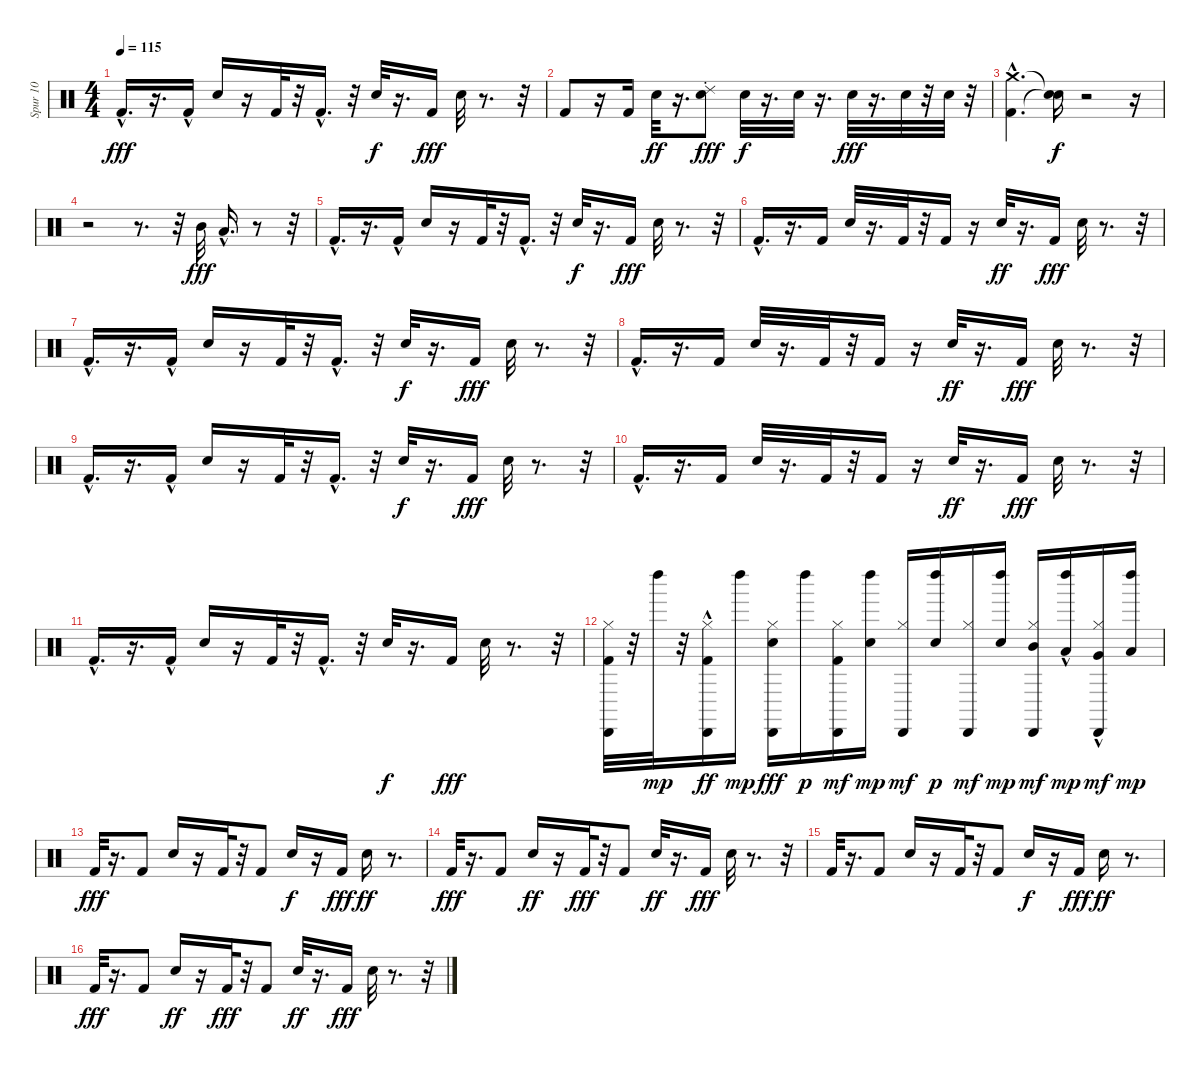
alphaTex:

\track ("Spur 10" "Spur 10") {instrument percussion}
\staff {score}
\articulation defaults
\ts (4 4)
\tempo 115
\clef neutral
\ks c "Kick (hit) 2"{hac}.16{d dy fff}
r.16{d} "Kick (hit) 2"{hac}.16 "Metronome (bell)".16 r.16 "Kick (hit) 2".32 r.32 "Kick (hit) 2"{hac}.16{d} r.32 "Metronome (bell)".32{dy f} r.16{d} "Kick (hit) 2".16{dy fff} "Metronome (bell)".32 r.8{d} r.32 |
"Kick (hit) 2".8{volume 14} r.16 "Kick (hit) 2".16 "Metronome (bell)".32{dy ff} r.16{d} ("Ride (choke) 2" "Metronome (bell)").8{dy fff} "Metronome (bell)".32{dy f} r.16{d} "Metronome (bell)".32 r.16{d} "Metronome (bell)".32{dy fff} r.16{d} "Metronome (bell)".32 r.32 "Metronome (bell)".32 r.32 |
("Crash medium (hit)"{hac} "Kick (hit) 2"{hac}).4{d volume 14} ("Snare (hit)"{t} "Snare (hit)"{t}).16{dy f} r.2 r.16 |
r.2 r.8{d} r.32 "Mid Tom (hit)".32{dy fff} "Low Tom (hit)"{hac}.16{d} r.8 r.32 |
"Kick (hit) 2"{hac}.16{d volume 14} r.16{d} "Kick (hit) 2"{hac}.16 "Metronome (bell)".16 r.16 "Kick (hit) 2".32 r.32 "Kick (hit) 2"{hac}.16{d} r.32 "Metronome (bell)".32{dy f} r.16{d} "Kick (hit) 2".16{dy fff} "Metronome (bell)".32 r.8{d} r.32 |
"Kick (hit) 2"{hac}.16{d} r.16{d} "Kick (hit) 2".16 "Metronome (bell)".32 r.16{d} "Kick (hit) 2".32 r.32 "Kick (hit) 2".16 r.16 "Metronome (bell)".32{dy ff} r.16{d} "Kick (hit) 2".16{dy fff} "Metronome (bell)".32 r.8{d} r.32 |
"Kick (hit) 2"{hac}.16{d} r.16{d} "Kick (hit) 2"{hac}.16 "Metronome (bell)".16 r.16 "Kick (hit) 2".32 r.32 "Kick (hit) 2"{hac}.16{d} r.32 "Metronome (bell)".32{dy f} r.16{d} "Kick (hit) 2".16{dy fff} "Metronome (bell)".32 r.8{d} r.32 |
"Kick (hit) 2"{hac}.16{d} r.16{d} "Kick (hit) 2".16 "Metronome (bell)".32 r.16{d} "Kick (hit) 2".32 r.32 "Kick (hit) 2".16 r.16 "Metronome (bell)".32{dy ff} r.16{d} "Kick (hit) 2".16{dy fff} "Metronome (bell)".32 r.8{d} r.32 |
"Kick (hit) 2"{hac}.16{d} r.16{d} "Kick (hit) 2"{hac}.16 "Metronome (bell)".16 r.16 "Kick (hit) 2".32 r.32 "Kick (hit) 2"{hac}.16{d} r.32 "Metronome (bell)".32{dy f} r.16{d} "Kick (hit) 2".16{dy fff} "Metronome (bell)".32 r.8{d} r.32 |
"Kick (hit) 2"{hac}.16{d} r.16{d} "Kick (hit) 2".16 "Metronome (bell)".32 r.16{d} "Kick (hit) 2".32 r.32 "Kick (hit) 2".16 r.16 "Metronome (bell)".32{dy ff} r.16{d} "Kick (hit) 2".16{dy fff} "Metronome (bell)".32 r.8{d} r.32 |
"Kick (hit) 2"{hac}.16{d} r.16{d} "Kick (hit) 2"{hac}.16 "Metronome (bell)".16 r.16 "Kick (hit) 2".32 r.32 "Kick (hit) 2"{hac}.16{d} r.32 "Metronome (bell)".32{dy f} r.16{d} "Kick (hit) 2".16{dy fff} "Metronome (bell)".32 r.8{d} r.32 |
("Cabasa (hit)" "Hi-Hat (closed)" "Kick (hit) 2").32{volume 14} r.32 "Left Maraca (hit)".32{dy mp} r.32 ("Cabasa (hit)" "Hi-Hat (closed)" "Kick (hit) 2"{hac}).16{dy ff} "Left Maraca (hit)".16{dy mp} ("Cabasa (hit)" "Metronome (bell)" "Hi-Hat (closed)").16{dy fff} "Left Maraca (hit)".16{dy p} ("Kick (hit) 2" "Hi-Hat (closed)" "Cabasa (hit)").16{dy mf} ("Metronome (bell)" "Left Maraca (hit)").16{dy mp} ("Hi-Hat (closed)" "Cabasa (hit)").16{dy mf} ("Metronome (bell)" "Left Maraca (hit)").16{dy p} ("Hi-Hat (closed)" "Cabasa (hit)").16{dy mf} ("Metronome (bell)" "Left Maraca (hit)").16{dy mp} ("Mid Tom (hit)" "Hi-Hat (closed)" "Cabasa (hit)").16{dy mf} ("Low Tom (hit)"{hac} "Left Maraca (hit)").16{dy mp} ("Hi-Hat (closed)" "Very Low Tom (hit)"{hac} "Cabasa (hit)").16{dy mf} ("Low Floor Tom (hit)" "Left Maraca (hit)").16{dy mp} |
"Kick (hit) 2".32{dy fff} r.16{d} "Kick (hit) 2".8 "Metronome (bell)".16 r.16 "Kick (hit) 2".32 r.32 "Kick (hit) 2".8 "Metronome (bell)".16{dy f} r.16 "Kick (hit) 2".16{dy fff} "Metronome (bell)".16{dy ff} r.8{d} |
"Kick (hit) 2".32{dy fff} r.16{d} "Kick (hit) 2".8 "Metronome (bell)".16{dy ff} r.16 "Kick (hit) 2".32{dy fff} r.32 "Kick (hit) 2".8 "Metronome (bell)".32{dy ff} r.16{d} "Kick (hit) 2".16{dy fff} "Metronome (bell)".32 r.8{d} r.32 |
"Kick (hit) 2".32 r.16{d} "Kick (hit) 2".8 "Metronome (bell)".16 r.16 "Kick (hit) 2".32 r.32 "Kick (hit) 2".8 "Metronome (bell)".16{dy f} r.16 "Kick (hit) 2".16{dy fff} "Metronome (bell)".16{dy ff} r.8{d} |
"Kick (hit) 2".32{dy fff} r.16{d} "Kick (hit) 2".8 "Metronome (bell)".16{dy ff} r.16 "Kick (hit) 2".32{dy fff} r.32 "Kick (hit) 2".8 "Metronome (bell)".32{dy ff} r.16{d} "Kick (hit) 2".16{dy fff} "Metronome (bell)".32 r.8{d} r.32
